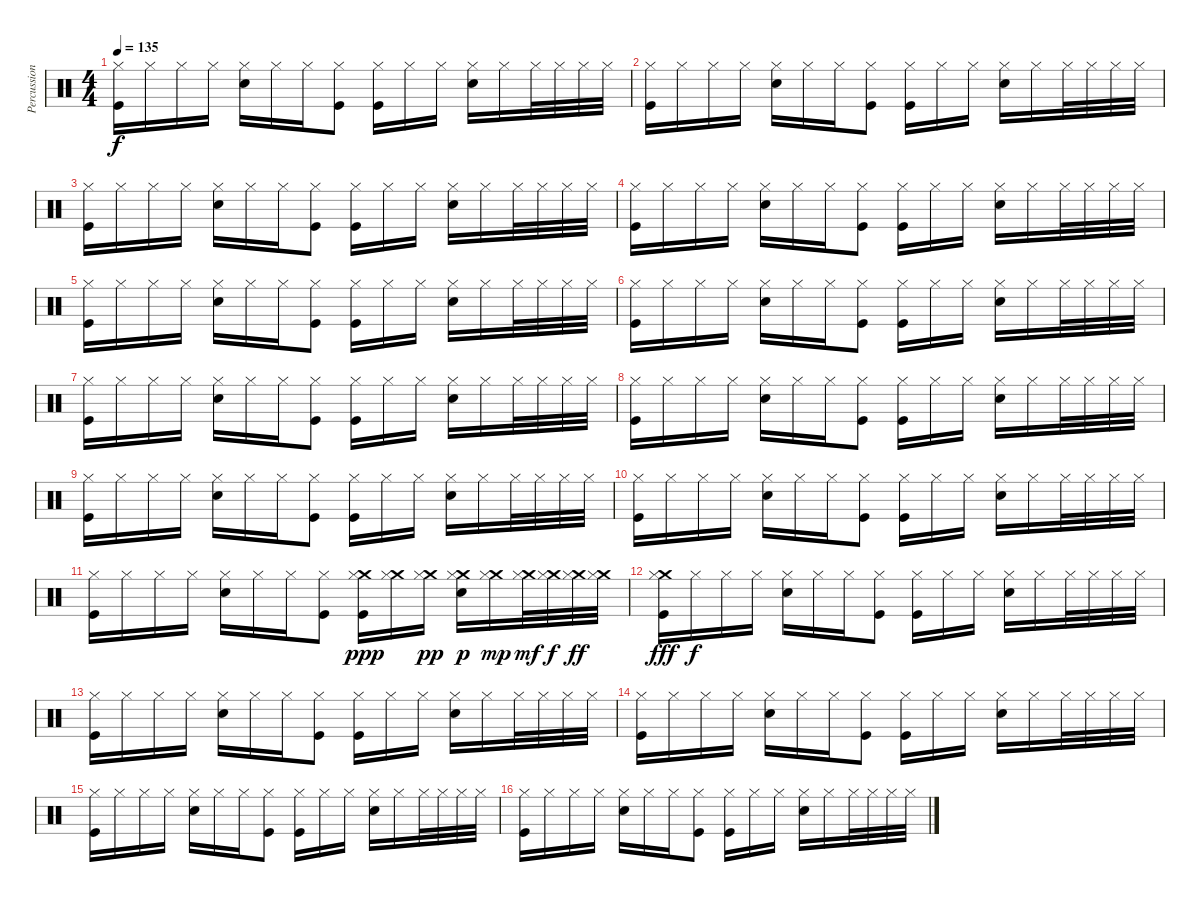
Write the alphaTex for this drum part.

\track ("Percussion" "Percussion") {instrument percussion}
\staff {score}
\articulation defaults
\ts (4 4)
\tempo 135
\clef neutral
\ks c
("Hi-Hat (closed)" "Kick (hit)").16{dy f} "Hi-Hat (closed)".16 "Hi-Hat (closed)".16 "Hi-Hat (closed)".16 ("Hi-Hat (closed)" "Snare (hit) 2").16 "Hi-Hat (closed)".16 "Hi-Hat (closed)".16 ("Hi-Hat (closed)" "Kick (hit)").8 ("Hi-Hat (closed)" "Kick (hit)").16 "Hi-Hat (closed)".16 "Hi-Hat (closed)".16 ("Hi-Hat (closed)" "Snare (hit) 2").16 "Hi-Hat (closed)".16 "Hi-Hat (closed)".32 "Hi-Hat (closed)".32 "Hi-Hat (closed)".32 "Hi-Hat (closed)".32 |
("Hi-Hat (closed)" "Kick (hit)").16 "Hi-Hat (closed)".16 "Hi-Hat (closed)".16 "Hi-Hat (closed)".16 ("Hi-Hat (closed)" "Snare (hit) 2").16 "Hi-Hat (closed)".16 "Hi-Hat (closed)".16 ("Hi-Hat (closed)" "Kick (hit)").8 ("Hi-Hat (closed)" "Kick (hit)").16 "Hi-Hat (closed)".16 "Hi-Hat (closed)".16 ("Hi-Hat (closed)" "Snare (hit) 2").16 "Hi-Hat (closed)".16 "Hi-Hat (closed)".32 "Hi-Hat (closed)".32 "Hi-Hat (closed)".32 "Hi-Hat (closed)".32 |
("Hi-Hat (closed)" "Kick (hit)").16 "Hi-Hat (closed)".16 "Hi-Hat (closed)".16 "Hi-Hat (closed)".16 ("Hi-Hat (closed)" "Snare (hit) 2").16 "Hi-Hat (closed)".16 "Hi-Hat (closed)".16 ("Hi-Hat (closed)" "Kick (hit)").8 ("Hi-Hat (closed)" "Kick (hit)").16 "Hi-Hat (closed)".16 "Hi-Hat (closed)".16 ("Hi-Hat (closed)" "Snare (hit) 2").16 "Hi-Hat (closed)".16 "Hi-Hat (closed)".32 "Hi-Hat (closed)".32 "Hi-Hat (closed)".32 "Hi-Hat (closed)".32 |
("Hi-Hat (closed)" "Kick (hit)").16 "Hi-Hat (closed)".16 "Hi-Hat (closed)".16 "Hi-Hat (closed)".16 ("Hi-Hat (closed)" "Snare (hit) 2").16 "Hi-Hat (closed)".16 "Hi-Hat (closed)".16 ("Hi-Hat (closed)" "Kick (hit)").8 ("Hi-Hat (closed)" "Kick (hit)").16 "Hi-Hat (closed)".16 "Hi-Hat (closed)".16 ("Hi-Hat (closed)" "Snare (hit) 2").16 "Hi-Hat (closed)".16 "Hi-Hat (closed)".32 "Hi-Hat (closed)".32 "Hi-Hat (closed)".32 "Hi-Hat (closed)".32 |
("Hi-Hat (closed)" "Kick (hit)").16 "Hi-Hat (closed)".16 "Hi-Hat (closed)".16 "Hi-Hat (closed)".16 ("Hi-Hat (closed)" "Snare (hit) 2").16 "Hi-Hat (closed)".16 "Hi-Hat (closed)".16 ("Hi-Hat (closed)" "Kick (hit)").8 ("Hi-Hat (closed)" "Kick (hit)").16 "Hi-Hat (closed)".16 "Hi-Hat (closed)".16 ("Hi-Hat (closed)" "Snare (hit) 2").16 "Hi-Hat (closed)".16 "Hi-Hat (closed)".32 "Hi-Hat (closed)".32 "Hi-Hat (closed)".32 "Hi-Hat (closed)".32 |
("Hi-Hat (closed)" "Kick (hit)").16 "Hi-Hat (closed)".16 "Hi-Hat (closed)".16 "Hi-Hat (closed)".16 ("Hi-Hat (closed)" "Snare (hit) 2").16 "Hi-Hat (closed)".16 "Hi-Hat (closed)".16 ("Hi-Hat (closed)" "Kick (hit)").8 ("Hi-Hat (closed)" "Kick (hit)").16 "Hi-Hat (closed)".16 "Hi-Hat (closed)".16 ("Hi-Hat (closed)" "Snare (hit) 2").16 "Hi-Hat (closed)".16 "Hi-Hat (closed)".32 "Hi-Hat (closed)".32 "Hi-Hat (closed)".32 "Hi-Hat (closed)".32 |
("Hi-Hat (closed)" "Kick (hit)").16 "Hi-Hat (closed)".16 "Hi-Hat (closed)".16 "Hi-Hat (closed)".16 ("Hi-Hat (closed)" "Snare (hit) 2").16 "Hi-Hat (closed)".16 "Hi-Hat (closed)".16 ("Hi-Hat (closed)" "Kick (hit)").8 ("Hi-Hat (closed)" "Kick (hit)").16 "Hi-Hat (closed)".16 "Hi-Hat (closed)".16 ("Hi-Hat (closed)" "Snare (hit) 2").16 "Hi-Hat (closed)".16 "Hi-Hat (closed)".32 "Hi-Hat (closed)".32 "Hi-Hat (closed)".32 "Hi-Hat (closed)".32 |
("Hi-Hat (closed)" "Kick (hit)").16 "Hi-Hat (closed)".16 "Hi-Hat (closed)".16 "Hi-Hat (closed)".16 ("Hi-Hat (closed)" "Snare (hit) 2").16 "Hi-Hat (closed)".16 "Hi-Hat (closed)".16 ("Hi-Hat (closed)" "Kick (hit)").8 ("Hi-Hat (closed)" "Kick (hit)").16 "Hi-Hat (closed)".16 "Hi-Hat (closed)".16 ("Hi-Hat (closed)" "Snare (hit) 2").16 "Hi-Hat (closed)".16 "Hi-Hat (closed)".32 "Hi-Hat (closed)".32 "Hi-Hat (closed)".32 "Hi-Hat (closed)".32 |
("Hi-Hat (closed)" "Kick (hit)").16 "Hi-Hat (closed)".16 "Hi-Hat (closed)".16 "Hi-Hat (closed)".16 ("Hi-Hat (closed)" "Snare (hit) 2").16 "Hi-Hat (closed)".16 "Hi-Hat (closed)".16 ("Hi-Hat (closed)" "Kick (hit)").8 ("Hi-Hat (closed)" "Kick (hit)").16 "Hi-Hat (closed)".16 "Hi-Hat (closed)".16 ("Hi-Hat (closed)" "Snare (hit) 2").16 "Hi-Hat (closed)".16 "Hi-Hat (closed)".32 "Hi-Hat (closed)".32 "Hi-Hat (closed)".32 "Hi-Hat (closed)".32 |
("Hi-Hat (closed)" "Kick (hit)").16 "Hi-Hat (closed)".16 "Hi-Hat (closed)".16 "Hi-Hat (closed)".16 ("Hi-Hat (closed)" "Snare (hit) 2").16 "Hi-Hat (closed)".16 "Hi-Hat (closed)".16 ("Hi-Hat (closed)" "Kick (hit)").8 ("Hi-Hat (closed)" "Kick (hit)").16 "Hi-Hat (closed)".16 "Hi-Hat (closed)".16 ("Hi-Hat (closed)" "Snare (hit) 2").16 "Hi-Hat (closed)".16 "Hi-Hat (closed)".32 "Hi-Hat (closed)".32 "Hi-Hat (closed)".32 "Hi-Hat (closed)".32 |
("Hi-Hat (closed)" "Kick (hit)").16 "Hi-Hat (closed)".16 "Hi-Hat (closed)".16 "Hi-Hat (closed)".16 ("Hi-Hat (closed)" "Snare (hit) 2").16 "Hi-Hat (closed)".16 "Hi-Hat (closed)".16 ("Hi-Hat (closed)" "Kick (hit)").8 ("Crash medium (hit)" "Hi-Hat (closed)" "Kick (hit)").16{dy ppp} ("Crash medium (hit)" "Hi-Hat (closed)").16 ("Crash medium (hit)" "Hi-Hat (closed)").16{dy pp} ("Crash medium (hit)" "Hi-Hat (closed)" "Snare (hit) 2").16{dy p} ("Crash medium (hit)" "Hi-Hat (closed)").16{dy mp} ("Crash medium (hit)" "Hi-Hat (closed)").32{dy mf} ("Crash medium (hit)" "Hi-Hat (closed)").32{dy f} ("Crash medium (hit)" "Hi-Hat (closed)").32{dy ff} ("Crash medium (hit)" "Hi-Hat (closed)").32 |
("Crash medium (hit)" "Hi-Hat (closed)" "Kick (hit)").16{dy fff} "Hi-Hat (closed)".16{dy f} "Hi-Hat (closed)".16 "Hi-Hat (closed)".16 ("Hi-Hat (closed)" "Snare (hit) 2").16 "Hi-Hat (closed)".16 "Hi-Hat (closed)".16 ("Hi-Hat (closed)" "Kick (hit)").8 ("Hi-Hat (closed)" "Kick (hit)").16 "Hi-Hat (closed)".16 "Hi-Hat (closed)".16 ("Hi-Hat (closed)" "Snare (hit) 2").16 "Hi-Hat (closed)".16 "Hi-Hat (closed)".32 "Hi-Hat (closed)".32 "Hi-Hat (closed)".32 "Hi-Hat (closed)".32 |
("Hi-Hat (closed)" "Kick (hit)").16 "Hi-Hat (closed)".16 "Hi-Hat (closed)".16 "Hi-Hat (closed)".16 ("Hi-Hat (closed)" "Snare (hit) 2").16 "Hi-Hat (closed)".16 "Hi-Hat (closed)".16 ("Hi-Hat (closed)" "Kick (hit)").8 ("Hi-Hat (closed)" "Kick (hit)").16 "Hi-Hat (closed)".16 "Hi-Hat (closed)".16 ("Hi-Hat (closed)" "Snare (hit) 2").16 "Hi-Hat (closed)".16 "Hi-Hat (closed)".32 "Hi-Hat (closed)".32 "Hi-Hat (closed)".32 "Hi-Hat (closed)".32 |
("Hi-Hat (closed)" "Kick (hit)").16 "Hi-Hat (closed)".16 "Hi-Hat (closed)".16 "Hi-Hat (closed)".16 ("Hi-Hat (closed)" "Snare (hit) 2").16 "Hi-Hat (closed)".16 "Hi-Hat (closed)".16 ("Hi-Hat (closed)" "Kick (hit)").8 ("Hi-Hat (closed)" "Kick (hit)").16 "Hi-Hat (closed)".16 "Hi-Hat (closed)".16 ("Hi-Hat (closed)" "Snare (hit) 2").16 "Hi-Hat (closed)".16 "Hi-Hat (closed)".32 "Hi-Hat (closed)".32 "Hi-Hat (closed)".32 "Hi-Hat (closed)".32 |
("Hi-Hat (closed)" "Kick (hit)").16 "Hi-Hat (closed)".16 "Hi-Hat (closed)".16 "Hi-Hat (closed)".16 ("Hi-Hat (closed)" "Snare (hit) 2").16 "Hi-Hat (closed)".16 "Hi-Hat (closed)".16 ("Hi-Hat (closed)" "Kick (hit)").8 ("Hi-Hat (closed)" "Kick (hit)").16 "Hi-Hat (closed)".16 "Hi-Hat (closed)".16 ("Hi-Hat (closed)" "Snare (hit) 2").16 "Hi-Hat (closed)".16 "Hi-Hat (closed)".32 "Hi-Hat (closed)".32 "Hi-Hat (closed)".32 "Hi-Hat (closed)".32 |
("Hi-Hat (closed)" "Kick (hit)").16 "Hi-Hat (closed)".16 "Hi-Hat (closed)".16 "Hi-Hat (closed)".16 ("Hi-Hat (closed)" "Snare (hit) 2").16 "Hi-Hat (closed)".16 "Hi-Hat (closed)".16 ("Hi-Hat (closed)" "Kick (hit)").8 ("Hi-Hat (closed)" "Kick (hit)").16 "Hi-Hat (closed)".16 "Hi-Hat (closed)".16 ("Hi-Hat (closed)" "Snare (hit) 2").16 "Hi-Hat (closed)".16 "Hi-Hat (closed)".32 "Hi-Hat (closed)".32 "Hi-Hat (closed)".32 "Hi-Hat (closed)".32
